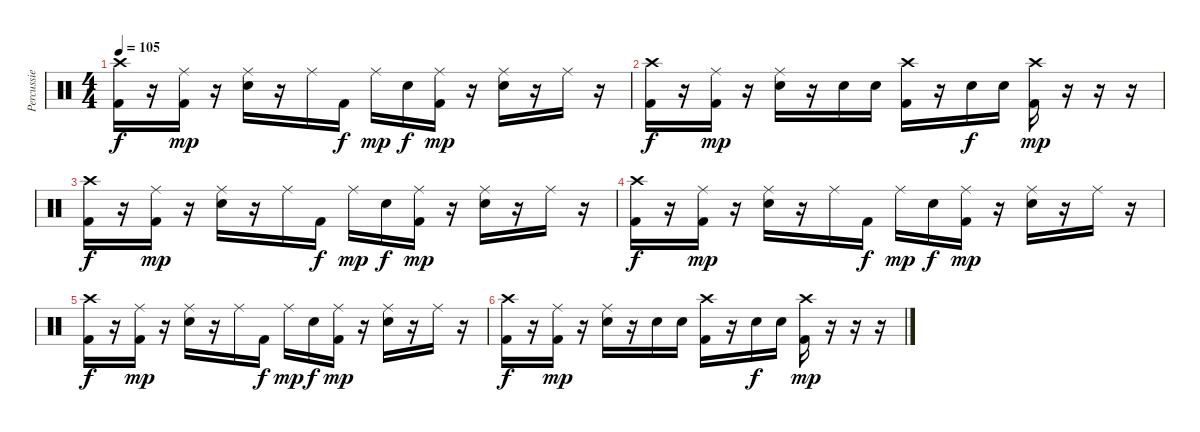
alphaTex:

\track ("Percussie" "Percussie") {instrument percussion}
\staff {score}
\articulation defaults
\ts (4 4)
\tempo 105
\clef neutral
\ks c
("Crash high (hit)" "Kick (hit) 2").16{dy f} r.16 ("Ride (middle)" "Kick (hit) 2").16{dy mp} r.16 ("Ride (middle)" "Electric Snare (hit)").16 r.16 "Ride (middle)".16 "Kick (hit) 2".16{dy f} "Ride (middle)".16{dy mp} "Electric Snare (hit)".16{dy f} ("Ride (middle)" "Kick (hit) 2").16{dy mp} r.16 ("Ride (middle)" "Electric Snare (hit)").16 r.16 "Ride (middle)".16 r.16 |
("Crash high (hit)" "Kick (hit) 2").16{dy f} r.16 ("Ride (middle)" "Kick (hit) 2").16{dy mp} r.16 ("Ride (middle)" "Electric Snare (hit)").16 r.16 "Electric Snare (hit)".16 "Electric Snare (hit)".16 ("Crash high (hit)" "Kick (hit) 2").16 r.16 "Electric Snare (hit)".16{dy f} "Electric Snare (hit)".16 ("Crash high (hit)" "Kick (hit) 2").16{dy mp} r.16 r.16 r.16 |
("Crash high (hit)" "Kick (hit) 2").16{dy f} r.16 ("Ride (middle)" "Kick (hit) 2").16{dy mp} r.16 ("Ride (middle)" "Electric Snare (hit)").16 r.16 "Ride (middle)".16 "Kick (hit) 2".16{dy f} "Ride (middle)".16{dy mp} "Electric Snare (hit)".16{dy f} ("Ride (middle)" "Kick (hit) 2").16{dy mp} r.16 ("Ride (middle)" "Electric Snare (hit)").16 r.16 "Ride (middle)".16 r.16 |
("Crash high (hit)" "Kick (hit) 2").16{dy f} r.16 ("Ride (middle)" "Kick (hit) 2").16{dy mp} r.16 ("Ride (middle)" "Electric Snare (hit)").16 r.16 "Ride (middle)".16 "Kick (hit) 2".16{dy f} "Ride (middle)".16{dy mp} "Electric Snare (hit)".16{dy f} ("Ride (middle)" "Kick (hit) 2").16{dy mp} r.16 ("Ride (middle)" "Electric Snare (hit)").16 r.16 "Ride (middle)".16 r.16 |
("Crash high (hit)" "Kick (hit) 2").16{dy f} r.16 ("Ride (middle)" "Kick (hit) 2").16{dy mp} r.16 ("Ride (middle)" "Electric Snare (hit)").16 r.16 "Ride (middle)".16 "Kick (hit) 2".16{dy f} "Ride (middle)".16{dy mp} "Electric Snare (hit)".16{dy f} ("Ride (middle)" "Kick (hit) 2").16{dy mp} r.16 ("Ride (middle)" "Electric Snare (hit)").16 r.16 "Ride (middle)".16 r.16 |
("Crash high (hit)" "Kick (hit) 2").16{dy f} r.16 ("Ride (middle)" "Kick (hit) 2").16{dy mp} r.16 ("Ride (middle)" "Electric Snare (hit)").16 r.16 "Electric Snare (hit)".16 "Electric Snare (hit)".16 ("Crash high (hit)" "Kick (hit) 2").16 r.16 "Electric Snare (hit)".16{dy f} "Electric Snare (hit)".16 ("Crash high (hit)" "Kick (hit) 2").16{dy mp} r.16 r.16 r.16
